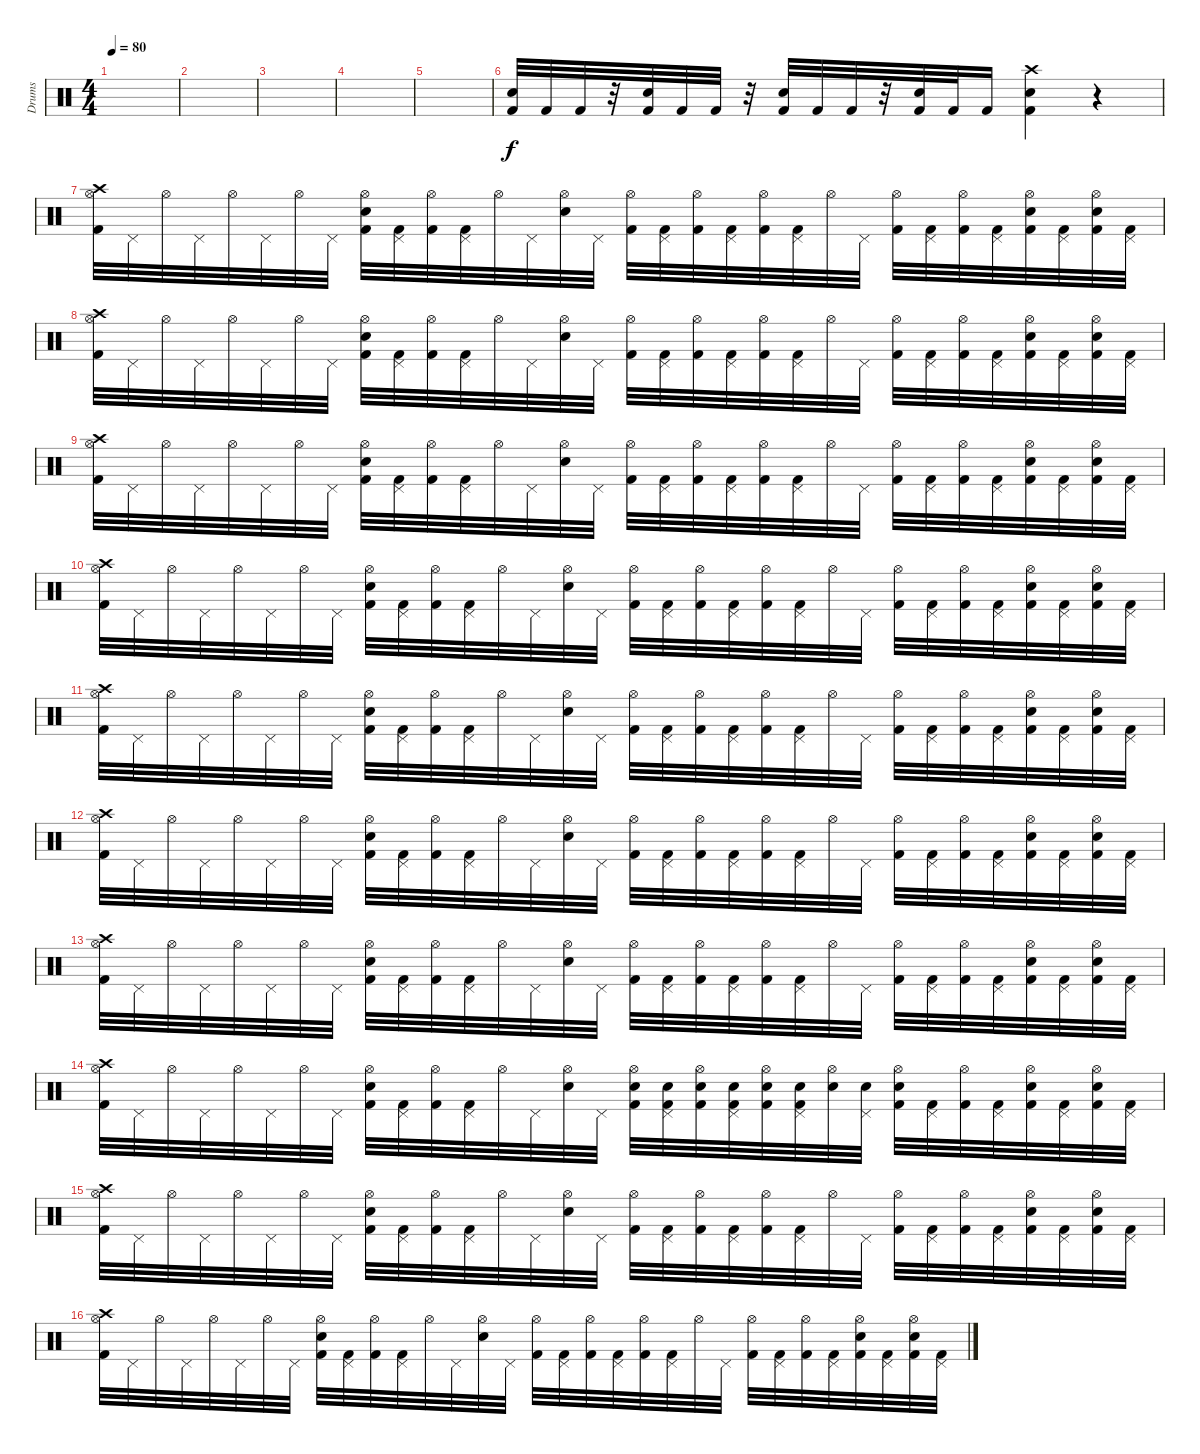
\track ("Drums" "Drums") {instrument percussion}
\staff {score}
\articulation defaults
\ts (4 4)
\tempo 80
\clef neutral
\ks c
|
|
|
|
|
("Electric Snare (hit)" "Kick (hit) 2").32 "Kick (hit) 2".32 "Kick (hit) 2".32 r.32 ("Electric Snare (hit)" "Kick (hit) 2").32 "Kick (hit) 2".32 "Kick (hit) 2".32 r.32 ("Electric Snare (hit)" "Kick (hit) 2").32 "Kick (hit) 2".32 "Kick (hit) 2".32 r.32 ("Electric Snare (hit)" "Kick (hit) 2").32 "Kick (hit) 2".32 "Kick (hit) 2".16 ("Crash high (hit)" "Electric Snare (hit)" "Kick (hit) 2").4 r.4 |
("Crash high (hit)" "Hi-Hat (open)" "Kick (hit) 2").32 "Pedal Hi-Hat (hit)".32 "Hi-Hat (open)".32 "Pedal Hi-Hat (hit)".32 "Hi-Hat (open)".32 "Pedal Hi-Hat (hit)".32 "Hi-Hat (open)".32 "Pedal Hi-Hat (hit)".32 ("Hi-Hat (open)" "Electric Snare (hit)" "Kick (hit) 2").32 ("Pedal Hi-Hat (hit)" "Kick (hit) 2").32 ("Hi-Hat (open)" "Kick (hit) 2").32 ("Pedal Hi-Hat (hit)" "Kick (hit) 2").32 "Hi-Hat (open)".32 "Pedal Hi-Hat (hit)".32 ("Hi-Hat (open)" "Electric Snare (hit)").32 "Pedal Hi-Hat (hit)".32 ("Hi-Hat (open)" "Kick (hit) 2").32 ("Pedal Hi-Hat (hit)" "Kick (hit) 2").32 ("Hi-Hat (open)" "Kick (hit) 2").32 ("Pedal Hi-Hat (hit)" "Kick (hit) 2").32 ("Hi-Hat (open)" "Kick (hit) 2").32 ("Pedal Hi-Hat (hit)" "Kick (hit) 2").32 "Hi-Hat (open)".32 "Pedal Hi-Hat (hit)".32 ("Hi-Hat (open)" "Kick (hit) 2").32 ("Pedal Hi-Hat (hit)" "Kick (hit) 2").32 ("Hi-Hat (open)" "Kick (hit) 2").32 ("Pedal Hi-Hat (hit)" "Kick (hit) 2").32 ("Hi-Hat (open)" "Electric Snare (hit)" "Kick (hit) 2").32 ("Pedal Hi-Hat (hit)" "Kick (hit) 2").32 ("Hi-Hat (open)" "Electric Snare (hit)" "Kick (hit) 2").32 ("Pedal Hi-Hat (hit)" "Kick (hit) 2").32 |
("Crash high (hit)" "Hi-Hat (open)" "Kick (hit) 2").32 "Pedal Hi-Hat (hit)".32 "Hi-Hat (open)".32 "Pedal Hi-Hat (hit)".32 "Hi-Hat (open)".32 "Pedal Hi-Hat (hit)".32 "Hi-Hat (open)".32 "Pedal Hi-Hat (hit)".32 ("Hi-Hat (open)" "Electric Snare (hit)" "Kick (hit) 2").32 ("Pedal Hi-Hat (hit)" "Kick (hit) 2").32 ("Hi-Hat (open)" "Kick (hit) 2").32 ("Pedal Hi-Hat (hit)" "Kick (hit) 2").32 "Hi-Hat (open)".32 "Pedal Hi-Hat (hit)".32 ("Hi-Hat (open)" "Electric Snare (hit)").32 "Pedal Hi-Hat (hit)".32 ("Hi-Hat (open)" "Kick (hit) 2").32 ("Pedal Hi-Hat (hit)" "Kick (hit) 2").32 ("Hi-Hat (open)" "Kick (hit) 2").32 ("Pedal Hi-Hat (hit)" "Kick (hit) 2").32 ("Hi-Hat (open)" "Kick (hit) 2").32 ("Pedal Hi-Hat (hit)" "Kick (hit) 2").32 "Hi-Hat (open)".32 "Pedal Hi-Hat (hit)".32 ("Hi-Hat (open)" "Kick (hit) 2").32 ("Pedal Hi-Hat (hit)" "Kick (hit) 2").32 ("Hi-Hat (open)" "Kick (hit) 2").32 ("Pedal Hi-Hat (hit)" "Kick (hit) 2").32 ("Hi-Hat (open)" "Electric Snare (hit)" "Kick (hit) 2").32 ("Pedal Hi-Hat (hit)" "Kick (hit) 2").32 ("Hi-Hat (open)" "Electric Snare (hit)" "Kick (hit) 2").32 ("Pedal Hi-Hat (hit)" "Kick (hit) 2").32 |
("Crash high (hit)" "Hi-Hat (open)" "Kick (hit) 2").32 "Pedal Hi-Hat (hit)".32 "Hi-Hat (open)".32 "Pedal Hi-Hat (hit)".32 "Hi-Hat (open)".32 "Pedal Hi-Hat (hit)".32 "Hi-Hat (open)".32 "Pedal Hi-Hat (hit)".32 ("Hi-Hat (open)" "Electric Snare (hit)" "Kick (hit) 2").32 ("Pedal Hi-Hat (hit)" "Kick (hit) 2").32 ("Hi-Hat (open)" "Kick (hit) 2").32 ("Pedal Hi-Hat (hit)" "Kick (hit) 2").32 "Hi-Hat (open)".32 "Pedal Hi-Hat (hit)".32 ("Hi-Hat (open)" "Electric Snare (hit)").32 "Pedal Hi-Hat (hit)".32 ("Hi-Hat (open)" "Kick (hit) 2").32 ("Pedal Hi-Hat (hit)" "Kick (hit) 2").32 ("Hi-Hat (open)" "Kick (hit) 2").32 ("Pedal Hi-Hat (hit)" "Kick (hit) 2").32 ("Hi-Hat (open)" "Kick (hit) 2").32 ("Pedal Hi-Hat (hit)" "Kick (hit) 2").32 "Hi-Hat (open)".32 "Pedal Hi-Hat (hit)".32 ("Hi-Hat (open)" "Kick (hit) 2").32 ("Pedal Hi-Hat (hit)" "Kick (hit) 2").32 ("Hi-Hat (open)" "Kick (hit) 2").32 ("Pedal Hi-Hat (hit)" "Kick (hit) 2").32 ("Hi-Hat (open)" "Electric Snare (hit)" "Kick (hit) 2").32 ("Pedal Hi-Hat (hit)" "Kick (hit) 2").32 ("Hi-Hat (open)" "Electric Snare (hit)" "Kick (hit) 2").32 ("Pedal Hi-Hat (hit)" "Kick (hit) 2").32 |
("Crash high (hit)" "Hi-Hat (open)" "Kick (hit) 2").32 "Pedal Hi-Hat (hit)".32 "Hi-Hat (open)".32 "Pedal Hi-Hat (hit)".32 "Hi-Hat (open)".32 "Pedal Hi-Hat (hit)".32 "Hi-Hat (open)".32 "Pedal Hi-Hat (hit)".32 ("Hi-Hat (open)" "Electric Snare (hit)" "Kick (hit) 2").32 ("Pedal Hi-Hat (hit)" "Kick (hit) 2").32 ("Hi-Hat (open)" "Kick (hit) 2").32 ("Pedal Hi-Hat (hit)" "Kick (hit) 2").32 "Hi-Hat (open)".32 "Pedal Hi-Hat (hit)".32 ("Hi-Hat (open)" "Electric Snare (hit)").32 "Pedal Hi-Hat (hit)".32 ("Hi-Hat (open)" "Kick (hit) 2").32 ("Pedal Hi-Hat (hit)" "Kick (hit) 2").32 ("Hi-Hat (open)" "Kick (hit) 2").32 ("Pedal Hi-Hat (hit)" "Kick (hit) 2").32 ("Hi-Hat (open)" "Kick (hit) 2").32 ("Pedal Hi-Hat (hit)" "Kick (hit) 2").32 "Hi-Hat (open)".32 "Pedal Hi-Hat (hit)".32 ("Hi-Hat (open)" "Kick (hit) 2").32 ("Pedal Hi-Hat (hit)" "Kick (hit) 2").32 ("Hi-Hat (open)" "Kick (hit) 2").32 ("Pedal Hi-Hat (hit)" "Kick (hit) 2").32 ("Hi-Hat (open)" "Electric Snare (hit)" "Kick (hit) 2").32 ("Pedal Hi-Hat (hit)" "Kick (hit) 2").32 ("Hi-Hat (open)" "Electric Snare (hit)" "Kick (hit) 2").32 ("Pedal Hi-Hat (hit)" "Kick (hit) 2").32 |
("Crash high (hit)" "Hi-Hat (open)" "Kick (hit) 2").32 "Pedal Hi-Hat (hit)".32 "Hi-Hat (open)".32 "Pedal Hi-Hat (hit)".32 "Hi-Hat (open)".32 "Pedal Hi-Hat (hit)".32 "Hi-Hat (open)".32 "Pedal Hi-Hat (hit)".32 ("Hi-Hat (open)" "Electric Snare (hit)" "Kick (hit) 2").32 ("Pedal Hi-Hat (hit)" "Kick (hit) 2").32 ("Hi-Hat (open)" "Kick (hit) 2").32 ("Pedal Hi-Hat (hit)" "Kick (hit) 2").32 "Hi-Hat (open)".32 "Pedal Hi-Hat (hit)".32 ("Hi-Hat (open)" "Electric Snare (hit)").32 "Pedal Hi-Hat (hit)".32 ("Hi-Hat (open)" "Kick (hit) 2").32 ("Pedal Hi-Hat (hit)" "Kick (hit) 2").32 ("Hi-Hat (open)" "Kick (hit) 2").32 ("Pedal Hi-Hat (hit)" "Kick (hit) 2").32 ("Hi-Hat (open)" "Kick (hit) 2").32 ("Pedal Hi-Hat (hit)" "Kick (hit) 2").32 "Hi-Hat (open)".32 "Pedal Hi-Hat (hit)".32 ("Hi-Hat (open)" "Kick (hit) 2").32 ("Pedal Hi-Hat (hit)" "Kick (hit) 2").32 ("Hi-Hat (open)" "Kick (hit) 2").32 ("Pedal Hi-Hat (hit)" "Kick (hit) 2").32 ("Hi-Hat (open)" "Electric Snare (hit)" "Kick (hit) 2").32 ("Pedal Hi-Hat (hit)" "Kick (hit) 2").32 ("Hi-Hat (open)" "Electric Snare (hit)" "Kick (hit) 2").32 ("Pedal Hi-Hat (hit)" "Kick (hit) 2").32 |
("Crash high (hit)" "Hi-Hat (open)" "Kick (hit) 2").32 "Pedal Hi-Hat (hit)".32 "Hi-Hat (open)".32 "Pedal Hi-Hat (hit)".32 "Hi-Hat (open)".32 "Pedal Hi-Hat (hit)".32 "Hi-Hat (open)".32 "Pedal Hi-Hat (hit)".32 ("Hi-Hat (open)" "Electric Snare (hit)" "Kick (hit) 2").32 ("Pedal Hi-Hat (hit)" "Kick (hit) 2").32 ("Hi-Hat (open)" "Kick (hit) 2").32 ("Pedal Hi-Hat (hit)" "Kick (hit) 2").32 "Hi-Hat (open)".32 "Pedal Hi-Hat (hit)".32 ("Hi-Hat (open)" "Electric Snare (hit)").32 "Pedal Hi-Hat (hit)".32 ("Hi-Hat (open)" "Kick (hit) 2").32 ("Pedal Hi-Hat (hit)" "Kick (hit) 2").32 ("Hi-Hat (open)" "Kick (hit) 2").32 ("Pedal Hi-Hat (hit)" "Kick (hit) 2").32 ("Hi-Hat (open)" "Kick (hit) 2").32 ("Pedal Hi-Hat (hit)" "Kick (hit) 2").32 "Hi-Hat (open)".32 "Pedal Hi-Hat (hit)".32 ("Hi-Hat (open)" "Kick (hit) 2").32 ("Pedal Hi-Hat (hit)" "Kick (hit) 2").32 ("Hi-Hat (open)" "Kick (hit) 2").32 ("Pedal Hi-Hat (hit)" "Kick (hit) 2").32 ("Hi-Hat (open)" "Electric Snare (hit)" "Kick (hit) 2").32 ("Pedal Hi-Hat (hit)" "Kick (hit) 2").32 ("Hi-Hat (open)" "Electric Snare (hit)" "Kick (hit) 2").32 ("Pedal Hi-Hat (hit)" "Kick (hit) 2").32 |
("Crash high (hit)" "Hi-Hat (open)" "Kick (hit) 2").32 "Pedal Hi-Hat (hit)".32 "Hi-Hat (open)".32 "Pedal Hi-Hat (hit)".32 "Hi-Hat (open)".32 "Pedal Hi-Hat (hit)".32 "Hi-Hat (open)".32 "Pedal Hi-Hat (hit)".32 ("Hi-Hat (open)" "Electric Snare (hit)" "Kick (hit) 2").32 ("Pedal Hi-Hat (hit)" "Kick (hit) 2").32 ("Hi-Hat (open)" "Kick (hit) 2").32 ("Pedal Hi-Hat (hit)" "Kick (hit) 2").32 "Hi-Hat (open)".32 "Pedal Hi-Hat (hit)".32 ("Hi-Hat (open)" "Electric Snare (hit)").32 "Pedal Hi-Hat (hit)".32 ("Hi-Hat (open)" "Kick (hit) 2").32 ("Pedal Hi-Hat (hit)" "Kick (hit) 2").32 ("Hi-Hat (open)" "Kick (hit) 2").32 ("Pedal Hi-Hat (hit)" "Kick (hit) 2").32 ("Hi-Hat (open)" "Kick (hit) 2").32 ("Pedal Hi-Hat (hit)" "Kick (hit) 2").32 "Hi-Hat (open)".32 "Pedal Hi-Hat (hit)".32 ("Hi-Hat (open)" "Kick (hit) 2").32 ("Pedal Hi-Hat (hit)" "Kick (hit) 2").32 ("Hi-Hat (open)" "Kick (hit) 2").32 ("Pedal Hi-Hat (hit)" "Kick (hit) 2").32 ("Hi-Hat (open)" "Electric Snare (hit)" "Kick (hit) 2").32 ("Pedal Hi-Hat (hit)" "Kick (hit) 2").32 ("Hi-Hat (open)" "Electric Snare (hit)" "Kick (hit) 2").32 ("Pedal Hi-Hat (hit)" "Kick (hit) 2").32 |
("Crash high (hit)" "Hi-Hat (open)" "Kick (hit) 2").32 "Pedal Hi-Hat (hit)".32 "Hi-Hat (open)".32 "Pedal Hi-Hat (hit)".32 "Hi-Hat (open)".32 "Pedal Hi-Hat (hit)".32 "Hi-Hat (open)".32 "Pedal Hi-Hat (hit)".32 ("Hi-Hat (open)" "Electric Snare (hit)" "Kick (hit) 2").32 ("Pedal Hi-Hat (hit)" "Kick (hit) 2").32 ("Hi-Hat (open)" "Kick (hit) 2").32 ("Pedal Hi-Hat (hit)" "Kick (hit) 2").32 "Hi-Hat (open)".32 "Pedal Hi-Hat (hit)".32 ("Hi-Hat (open)" "Electric Snare (hit)").32 "Pedal Hi-Hat (hit)".32 ("Hi-Hat (open)" "Electric Snare (hit)" "Kick (hit) 2").32 ("Pedal Hi-Hat (hit)" "Electric Snare (hit)" "Kick (hit) 2").32 ("Hi-Hat (open)" "Electric Snare (hit)" "Kick (hit) 2").32 ("Pedal Hi-Hat (hit)" "Electric Snare (hit)" "Kick (hit) 2").32 ("Hi-Hat (open)" "Electric Snare (hit)" "Kick (hit) 2").32 ("Pedal Hi-Hat (hit)" "Electric Snare (hit)" "Kick (hit) 2").32 ("Hi-Hat (open)" "Electric Snare (hit)").32 ("Pedal Hi-Hat (hit)" "Electric Snare (hit)").32 ("Hi-Hat (open)" "Electric Snare (hit)" "Kick (hit) 2").32 ("Pedal Hi-Hat (hit)" "Kick (hit) 2").32 ("Hi-Hat (open)" "Kick (hit) 2").32 ("Pedal Hi-Hat (hit)" "Kick (hit) 2").32 ("Hi-Hat (open)" "Electric Snare (hit)" "Kick (hit) 2").32 ("Pedal Hi-Hat (hit)" "Kick (hit) 2").32 ("Hi-Hat (open)" "Electric Snare (hit)" "Kick (hit) 2").32 ("Pedal Hi-Hat (hit)" "Kick (hit) 2").32 |
("Crash high (hit)" "Hi-Hat (open)" "Kick (hit) 2").32 "Pedal Hi-Hat (hit)".32 "Hi-Hat (open)".32 "Pedal Hi-Hat (hit)".32 "Hi-Hat (open)".32 "Pedal Hi-Hat (hit)".32 "Hi-Hat (open)".32 "Pedal Hi-Hat (hit)".32 ("Hi-Hat (open)" "Electric Snare (hit)" "Kick (hit) 2").32 ("Pedal Hi-Hat (hit)" "Kick (hit) 2").32 ("Hi-Hat (open)" "Kick (hit) 2").32 ("Pedal Hi-Hat (hit)" "Kick (hit) 2").32 "Hi-Hat (open)".32 "Pedal Hi-Hat (hit)".32 ("Hi-Hat (open)" "Electric Snare (hit)").32 "Pedal Hi-Hat (hit)".32 ("Hi-Hat (open)" "Kick (hit) 2").32 ("Pedal Hi-Hat (hit)" "Kick (hit) 2").32 ("Hi-Hat (open)" "Kick (hit) 2").32 ("Pedal Hi-Hat (hit)" "Kick (hit) 2").32 ("Hi-Hat (open)" "Kick (hit) 2").32 ("Pedal Hi-Hat (hit)" "Kick (hit) 2").32 "Hi-Hat (open)".32 "Pedal Hi-Hat (hit)".32 ("Hi-Hat (open)" "Kick (hit) 2").32 ("Pedal Hi-Hat (hit)" "Kick (hit) 2").32 ("Hi-Hat (open)" "Kick (hit) 2").32 ("Pedal Hi-Hat (hit)" "Kick (hit) 2").32 ("Hi-Hat (open)" "Electric Snare (hit)" "Kick (hit) 2").32 ("Pedal Hi-Hat (hit)" "Kick (hit) 2").32 ("Hi-Hat (open)" "Electric Snare (hit)" "Kick (hit) 2").32 ("Pedal Hi-Hat (hit)" "Kick (hit) 2").32 |
("Crash high (hit)" "Hi-Hat (open)" "Kick (hit) 2").32 "Pedal Hi-Hat (hit)".32 "Hi-Hat (open)".32 "Pedal Hi-Hat (hit)".32 "Hi-Hat (open)".32 "Pedal Hi-Hat (hit)".32 "Hi-Hat (open)".32 "Pedal Hi-Hat (hit)".32 ("Hi-Hat (open)" "Electric Snare (hit)" "Kick (hit) 2").32 ("Pedal Hi-Hat (hit)" "Kick (hit) 2").32 ("Hi-Hat (open)" "Kick (hit) 2").32 ("Pedal Hi-Hat (hit)" "Kick (hit) 2").32 "Hi-Hat (open)".32 "Pedal Hi-Hat (hit)".32 ("Hi-Hat (open)" "Electric Snare (hit)").32 "Pedal Hi-Hat (hit)".32 ("Hi-Hat (open)" "Kick (hit) 2").32 ("Pedal Hi-Hat (hit)" "Kick (hit) 2").32 ("Hi-Hat (open)" "Kick (hit) 2").32 ("Pedal Hi-Hat (hit)" "Kick (hit) 2").32 ("Hi-Hat (open)" "Kick (hit) 2").32 ("Pedal Hi-Hat (hit)" "Kick (hit) 2").32 "Hi-Hat (open)".32 "Pedal Hi-Hat (hit)".32 ("Hi-Hat (open)" "Kick (hit) 2").32 ("Pedal Hi-Hat (hit)" "Kick (hit) 2").32 ("Hi-Hat (open)" "Kick (hit) 2").32 ("Pedal Hi-Hat (hit)" "Kick (hit) 2").32 ("Hi-Hat (open)" "Electric Snare (hit)" "Kick (hit) 2").32 ("Pedal Hi-Hat (hit)" "Kick (hit) 2").32 ("Hi-Hat (open)" "Electric Snare (hit)" "Kick (hit) 2").32 ("Pedal Hi-Hat (hit)" "Kick (hit) 2").32
